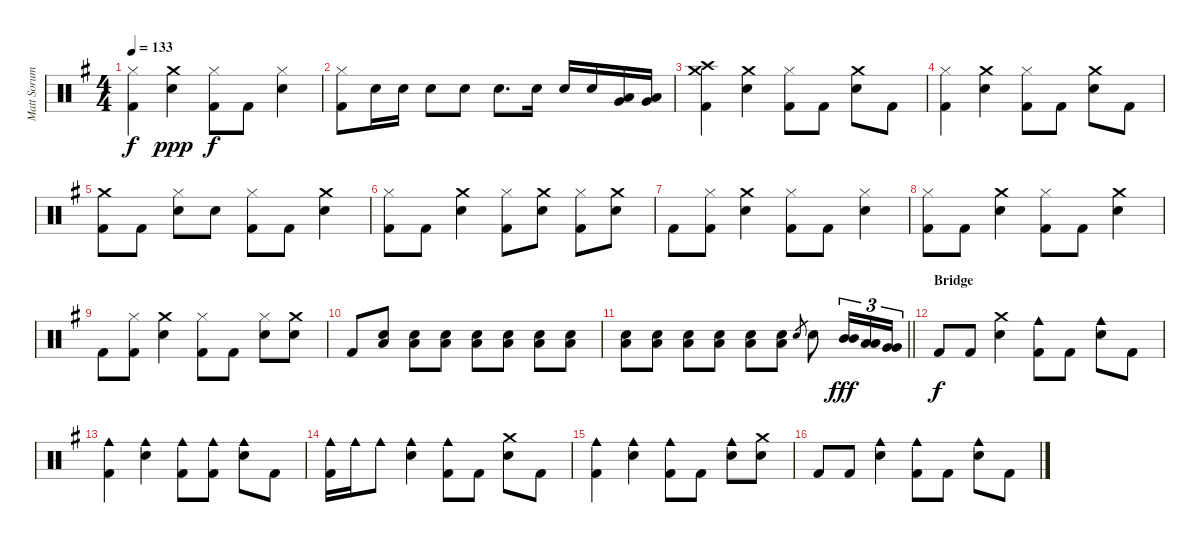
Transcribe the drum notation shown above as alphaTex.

\track ("Matt Sorum - Drums" "Matt Sorum") {instrument percussion}
\staff {score}
\articulation defaults
\ts (4 4)
\tempo 133
\clef neutral
\ks g
("Hi-Hat (closed)" "Kick (hit) 2").4{dy f} ("Crash medium (hit)" "Snare (hit) 2").4{dy ppp} ("Hi-Hat (closed)" "Kick (hit) 2").8{dy f} "Kick (hit) 2".8 ("Hi-Hat (closed)" "Snare (hit) 2").4 |
("Hi-Hat (closed)" "Kick (hit) 2").8 "Snare (hit) 2".16 "Snare (hit) 2".16 "Snare (hit) 2".8 "Snare (hit) 2".8 "Snare (hit) 2".8{d} "Snare (hit) 2".16 "Snare (hit) 2".16 "Snare (hit) 2".16 ("Low Tom (hit)" "Very Low Tom (hit)").16 ("Low Tom (hit)" "Very Low Tom (hit)").16 |
("Crash medium (hit)" "Crash high (hit)" "Kick (hit) 2").4 ("Crash medium (hit)" "Snare (hit) 2").4 ("Hi-Hat (closed)" "Kick (hit) 2").8 "Kick (hit) 2".8 ("Crash medium (hit)" "Snare (hit) 2").8 "Kick (hit) 2".8 |
("Hi-Hat (closed)" "Kick (hit) 2").4 ("Crash medium (hit)" "Snare (hit) 2").4 ("Hi-Hat (closed)" "Kick (hit) 2").8 "Kick (hit) 2".8 ("Crash medium (hit)" "Snare (hit) 2").8 "Kick (hit) 2".8 |
("Crash medium (hit)" "Kick (hit) 2").8 "Kick (hit) 2".8 ("Hi-Hat (closed)" "Snare (hit) 2").8 "Snare (hit) 2".8 ("Hi-Hat (closed)" "Kick (hit) 2").8 "Kick (hit) 2".8 ("Crash medium (hit)" "Snare (hit) 2").4 |
("Hi-Hat (closed)" "Kick (hit) 2").8 "Kick (hit) 2".8 ("Crash medium (hit)" "Snare (hit) 2").4 ("Hi-Hat (closed)" "Kick (hit) 2").8 ("Crash medium (hit)" "Snare (hit) 2").8 ("Hi-Hat (closed)" "Kick (hit) 2").8 ("Crash medium (hit)" "Snare (hit) 2").8 |
"Kick (hit) 2".8 ("Hi-Hat (closed)" "Kick (hit) 2").8 ("Crash medium (hit)" "Snare (hit) 2").4 ("Hi-Hat (closed)" "Kick (hit) 2").8 "Kick (hit) 2".8 ("Hi-Hat (closed)" "Snare (hit) 2").4 |
("Hi-Hat (closed)" "Kick (hit) 2").8 "Kick (hit) 2".8 ("Crash medium (hit)" "Snare (hit) 2").4 ("Hi-Hat (closed)" "Kick (hit) 2").8 "Kick (hit) 2".8 ("Crash medium (hit)" "Snare (hit) 2").4 |
"Kick (hit) 2".8 ("Hi-Hat (closed)" "Kick (hit) 2").8 ("Crash medium (hit)" "Snare (hit) 2").4 ("Hi-Hat (closed)" "Kick (hit) 2").8 "Kick (hit) 2".8 ("Hi-Hat (closed)" "Snare (hit) 2").8 ("Crash medium (hit)" "Snare (hit) 2").8 |
"Kick (hit) 2".8 ("Low Tom (hit)" "Snare (hit) 2").8 ("Low Tom (hit)" "Snare (hit) 2").8 ("Low Tom (hit)" "Snare (hit) 2").8 ("Low Tom (hit)" "Snare (hit) 2").8 ("Low Tom (hit)" "Snare (hit) 2").8 ("Low Tom (hit)" "Snare (hit) 2").8 ("Low Tom (hit)" "Snare (hit) 2").8 |
\barLineRight lightlight
("Low Tom (hit)" "Snare (hit) 2").8 ("Low Tom (hit)" "Snare (hit) 2").8 ("Low Tom (hit)" "Snare (hit) 2").8 ("Low Tom (hit)" "Snare (hit) 2").8 ("Low Tom (hit)" "Snare (hit) 2").8 ("Low Tom (hit)" "Snare (hit) 2").8 "Snare (hit) 2".8{gr} "Snare (hit) 2".8 ("Mid Tom (hit)" "Mid Tom (hit)").16{tu (3 2) dy fff} ("Low Tom (hit)" "Low Tom (hit)").16{tu (3 2)} ("Very Low Tom (hit)" "Very Low Tom (hit)").16{tu (3 2)} |
\section ("" "Bridge")
"Kick (hit) 2".8{dy f} "Kick (hit) 2".8 ("Crash medium (hit)" "Snare (hit) 2").4 ("Cowbell medium (hit)" "Kick (hit) 2").8 "Kick (hit) 2".8 ("Cowbell medium (hit)" "Snare (hit) 2").8 "Kick (hit) 2".8 |
("Cowbell medium (hit)" "Kick (hit) 2").4 ("Cowbell medium (hit)" "Snare (hit) 2").4 ("Cowbell medium (hit)" "Kick (hit) 2").8 ("Cowbell medium (hit)" "Kick (hit) 2").8 ("Cowbell medium (hit)" "Snare (hit) 2").8 "Kick (hit) 2".8 |
("Cowbell medium (hit)" "Kick (hit) 2").16 "Cowbell medium (hit)".16 "Cowbell medium (hit)".8 ("Cowbell medium (hit)" "Snare (hit) 2").4 ("Cowbell medium (hit)" "Kick (hit) 2").8 "Kick (hit) 2".8 ("Crash medium (hit)" "Snare (hit) 2").8 "Kick (hit) 2".8 |
("Cowbell medium (hit)" "Kick (hit) 2").4 ("Cowbell medium (hit)" "Snare (hit) 2").4 ("Cowbell medium (hit)" "Kick (hit) 2").8 "Kick (hit) 2".8 ("Cowbell medium (hit)" "Snare (hit) 2").8 ("Crash medium (hit)" "Snare (hit) 2").8 |
"Kick (hit) 2".8 "Kick (hit) 2".8 ("Cowbell medium (hit)" "Snare (hit) 2").4 ("Cowbell medium (hit)" "Kick (hit) 2").8 "Kick (hit) 2".8 ("Cowbell medium (hit)" "Snare (hit) 2").8 "Kick (hit) 2".8
